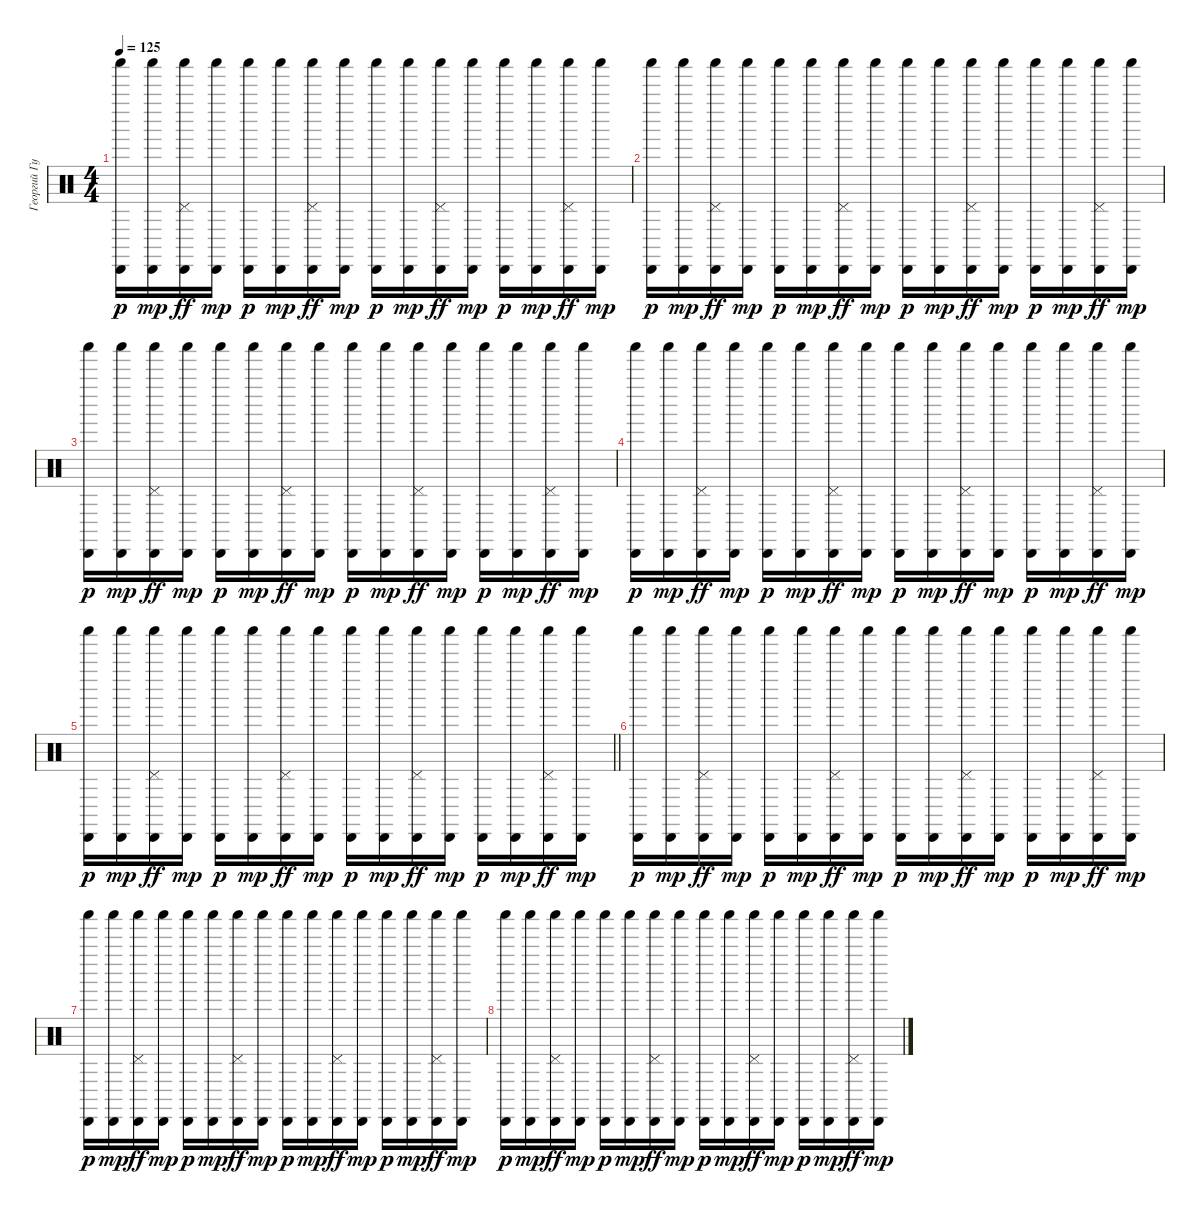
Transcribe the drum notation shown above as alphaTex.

\track ("Георгий Гурьянов_2" "Георгий Гу") {instrument percussion}
\staff {score}
\articulation defaults
\ts (4 4)
\tempo 125
\clef neutral
\ks c
("Cabasa (hit)" "Shaker (hit)").16{dy p} ("Cabasa (hit)" "Shaker (hit)").16{dy mp} ("Cabasa (hit)" "Shaker (hit)" "Pedal Hi-Hat (hit)").16{dy ff} ("Cabasa (hit)" "Shaker (hit)").16{dy mp} ("Cabasa (hit)" "Shaker (hit)").16{dy p} ("Cabasa (hit)" "Shaker (hit)").16{dy mp} ("Cabasa (hit)" "Shaker (hit)" "Pedal Hi-Hat (hit)").16{dy ff} ("Cabasa (hit)" "Shaker (hit)").16{dy mp} ("Cabasa (hit)" "Shaker (hit)").16{dy p} ("Cabasa (hit)" "Shaker (hit)").16{dy mp} ("Cabasa (hit)" "Shaker (hit)" "Pedal Hi-Hat (hit)").16{dy ff} ("Cabasa (hit)" "Shaker (hit)").16{dy mp} ("Cabasa (hit)" "Shaker (hit)").16{dy p} ("Cabasa (hit)" "Shaker (hit)").16{dy mp} ("Cabasa (hit)" "Shaker (hit)" "Pedal Hi-Hat (hit)").16{dy ff} ("Cabasa (hit)" "Shaker (hit)").16{dy mp} |
("Cabasa (hit)" "Shaker (hit)").16{dy p} ("Cabasa (hit)" "Shaker (hit)").16{dy mp} ("Cabasa (hit)" "Shaker (hit)" "Pedal Hi-Hat (hit)").16{dy ff} ("Cabasa (hit)" "Shaker (hit)").16{dy mp} ("Cabasa (hit)" "Shaker (hit)").16{dy p} ("Cabasa (hit)" "Shaker (hit)").16{dy mp} ("Cabasa (hit)" "Shaker (hit)" "Pedal Hi-Hat (hit)").16{dy ff} ("Cabasa (hit)" "Shaker (hit)").16{dy mp} ("Cabasa (hit)" "Shaker (hit)").16{dy p} ("Cabasa (hit)" "Shaker (hit)").16{dy mp} ("Cabasa (hit)" "Shaker (hit)" "Pedal Hi-Hat (hit)").16{dy ff} ("Cabasa (hit)" "Shaker (hit)").16{dy mp} ("Cabasa (hit)" "Shaker (hit)").16{dy p} ("Cabasa (hit)" "Shaker (hit)").16{dy mp} ("Cabasa (hit)" "Shaker (hit)" "Pedal Hi-Hat (hit)").16{dy ff} ("Cabasa (hit)" "Shaker (hit)").16{dy mp} |
("Cabasa (hit)" "Shaker (hit)").16{dy p} ("Cabasa (hit)" "Shaker (hit)").16{dy mp} ("Cabasa (hit)" "Shaker (hit)" "Pedal Hi-Hat (hit)").16{dy ff} ("Cabasa (hit)" "Shaker (hit)").16{dy mp} ("Cabasa (hit)" "Shaker (hit)").16{dy p} ("Cabasa (hit)" "Shaker (hit)").16{dy mp} ("Cabasa (hit)" "Shaker (hit)" "Pedal Hi-Hat (hit)").16{dy ff} ("Cabasa (hit)" "Shaker (hit)").16{dy mp} ("Cabasa (hit)" "Shaker (hit)").16{dy p} ("Cabasa (hit)" "Shaker (hit)").16{dy mp} ("Cabasa (hit)" "Shaker (hit)" "Pedal Hi-Hat (hit)").16{dy ff} ("Cabasa (hit)" "Shaker (hit)").16{dy mp} ("Cabasa (hit)" "Shaker (hit)").16{dy p} ("Cabasa (hit)" "Shaker (hit)").16{dy mp} ("Cabasa (hit)" "Shaker (hit)" "Pedal Hi-Hat (hit)").16{dy ff} ("Cabasa (hit)" "Shaker (hit)").16{dy mp} |
("Cabasa (hit)" "Shaker (hit)").16{dy p} ("Cabasa (hit)" "Shaker (hit)").16{dy mp} ("Cabasa (hit)" "Shaker (hit)" "Pedal Hi-Hat (hit)").16{dy ff} ("Cabasa (hit)" "Shaker (hit)").16{dy mp} ("Cabasa (hit)" "Shaker (hit)").16{dy p} ("Cabasa (hit)" "Shaker (hit)").16{dy mp} ("Cabasa (hit)" "Shaker (hit)" "Pedal Hi-Hat (hit)").16{dy ff} ("Cabasa (hit)" "Shaker (hit)").16{dy mp} ("Cabasa (hit)" "Shaker (hit)").16{dy p} ("Cabasa (hit)" "Shaker (hit)").16{dy mp} ("Cabasa (hit)" "Shaker (hit)" "Pedal Hi-Hat (hit)").16{dy ff} ("Cabasa (hit)" "Shaker (hit)").16{dy mp} ("Cabasa (hit)" "Shaker (hit)").16{dy p} ("Cabasa (hit)" "Shaker (hit)").16{dy mp} ("Cabasa (hit)" "Shaker (hit)" "Pedal Hi-Hat (hit)").16{dy ff} ("Cabasa (hit)" "Shaker (hit)").16{dy mp} |
\barLineRight lightlight
("Cabasa (hit)" "Shaker (hit)").16{dy p} ("Cabasa (hit)" "Shaker (hit)").16{dy mp} ("Cabasa (hit)" "Shaker (hit)" "Pedal Hi-Hat (hit)").16{dy ff} ("Cabasa (hit)" "Shaker (hit)").16{dy mp} ("Cabasa (hit)" "Shaker (hit)").16{dy p} ("Cabasa (hit)" "Shaker (hit)").16{dy mp} ("Cabasa (hit)" "Shaker (hit)" "Pedal Hi-Hat (hit)").16{dy ff} ("Cabasa (hit)" "Shaker (hit)").16{dy mp} ("Cabasa (hit)" "Shaker (hit)").16{dy p} ("Cabasa (hit)" "Shaker (hit)").16{dy mp} ("Cabasa (hit)" "Shaker (hit)" "Pedal Hi-Hat (hit)").16{dy ff} ("Cabasa (hit)" "Shaker (hit)").16{dy mp} ("Cabasa (hit)" "Shaker (hit)").16{dy p} ("Cabasa (hit)" "Shaker (hit)").16{dy mp} ("Cabasa (hit)" "Shaker (hit)" "Pedal Hi-Hat (hit)").16{dy ff} ("Cabasa (hit)" "Shaker (hit)").16{dy mp} |
("Cabasa (hit)" "Shaker (hit)").16{dy p} ("Cabasa (hit)" "Shaker (hit)").16{dy mp} ("Cabasa (hit)" "Shaker (hit)" "Pedal Hi-Hat (hit)").16{dy ff} ("Cabasa (hit)" "Shaker (hit)").16{dy mp} ("Cabasa (hit)" "Shaker (hit)").16{dy p} ("Cabasa (hit)" "Shaker (hit)").16{dy mp} ("Cabasa (hit)" "Shaker (hit)" "Pedal Hi-Hat (hit)").16{dy ff} ("Cabasa (hit)" "Shaker (hit)").16{dy mp} ("Cabasa (hit)" "Shaker (hit)").16{dy p} ("Cabasa (hit)" "Shaker (hit)").16{dy mp} ("Cabasa (hit)" "Shaker (hit)" "Pedal Hi-Hat (hit)").16{dy ff} ("Cabasa (hit)" "Shaker (hit)").16{dy mp} ("Cabasa (hit)" "Shaker (hit)").16{dy p} ("Cabasa (hit)" "Shaker (hit)").16{dy mp} ("Cabasa (hit)" "Shaker (hit)" "Pedal Hi-Hat (hit)").16{dy ff} ("Cabasa (hit)" "Shaker (hit)").16{dy mp} |
("Cabasa (hit)" "Shaker (hit)").16{dy p} ("Cabasa (hit)" "Shaker (hit)").16{dy mp} ("Cabasa (hit)" "Shaker (hit)" "Pedal Hi-Hat (hit)").16{dy ff} ("Cabasa (hit)" "Shaker (hit)").16{dy mp} ("Cabasa (hit)" "Shaker (hit)").16{dy p} ("Cabasa (hit)" "Shaker (hit)").16{dy mp} ("Cabasa (hit)" "Shaker (hit)" "Pedal Hi-Hat (hit)").16{dy ff} ("Cabasa (hit)" "Shaker (hit)").16{dy mp} ("Cabasa (hit)" "Shaker (hit)").16{dy p} ("Cabasa (hit)" "Shaker (hit)").16{dy mp} ("Cabasa (hit)" "Shaker (hit)" "Pedal Hi-Hat (hit)").16{dy ff} ("Cabasa (hit)" "Shaker (hit)").16{dy mp} ("Cabasa (hit)" "Shaker (hit)").16{dy p} ("Cabasa (hit)" "Shaker (hit)").16{dy mp} ("Cabasa (hit)" "Shaker (hit)" "Pedal Hi-Hat (hit)").16{dy ff} ("Cabasa (hit)" "Shaker (hit)").16{dy mp} |
("Cabasa (hit)" "Shaker (hit)").16{dy p} ("Cabasa (hit)" "Shaker (hit)").16{dy mp} ("Cabasa (hit)" "Shaker (hit)" "Pedal Hi-Hat (hit)").16{dy ff} ("Cabasa (hit)" "Shaker (hit)").16{dy mp} ("Cabasa (hit)" "Shaker (hit)").16{dy p} ("Cabasa (hit)" "Shaker (hit)").16{dy mp} ("Cabasa (hit)" "Shaker (hit)" "Pedal Hi-Hat (hit)").16{dy ff} ("Cabasa (hit)" "Shaker (hit)").16{dy mp} ("Cabasa (hit)" "Shaker (hit)").16{dy p} ("Cabasa (hit)" "Shaker (hit)").16{dy mp} ("Cabasa (hit)" "Shaker (hit)" "Pedal Hi-Hat (hit)").16{dy ff} ("Cabasa (hit)" "Shaker (hit)").16{dy mp} ("Cabasa (hit)" "Shaker (hit)").16{dy p} ("Cabasa (hit)" "Shaker (hit)").16{dy mp} ("Cabasa (hit)" "Shaker (hit)" "Pedal Hi-Hat (hit)").16{dy ff} ("Cabasa (hit)" "Shaker (hit)").16{dy mp}
